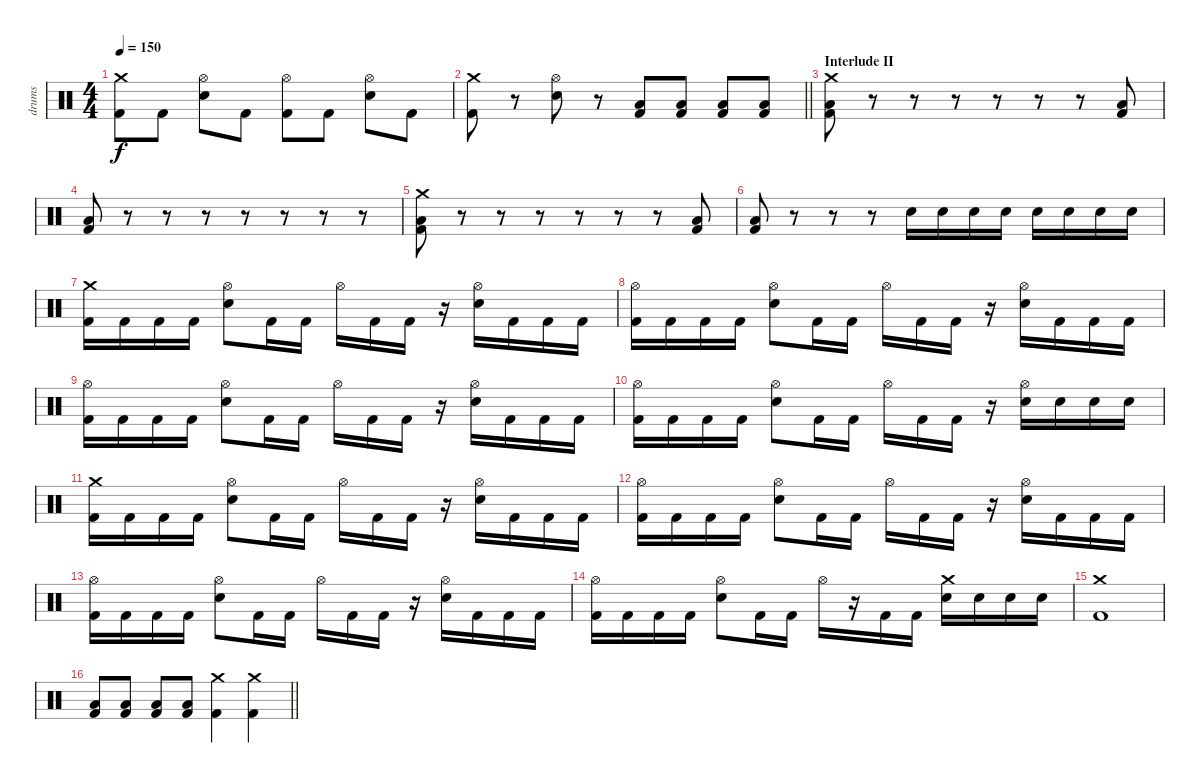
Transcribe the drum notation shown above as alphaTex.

\track ("drums" "drums") {instrument percussion}
\staff {score}
\articulation defaults
\ts (4 4)
\tempo 150
\clef neutral
\ks c
("Crash medium (hit)" "Kick (hit) 2").8{dy f} "Kick (hit) 2".8 ("Hi-Hat (open)" "Electric Snare (hit)").8 "Kick (hit) 2".8 ("Hi-Hat (open)" "Kick (hit) 2").8 "Kick (hit) 2".8 ("Hi-Hat (open)" "Electric Snare (hit)").8 "Kick (hit) 2".8 |
\barLineRight lightlight
("Crash medium (hit)" "Kick (hit) 2").8 r.8 ("Hi-Hat (open)" "Electric Snare (hit)").8 r.8 ("Low Tom (hit)" "Kick (hit) 2").8 ("Low Tom (hit)" "Kick (hit) 2").8 ("Low Tom (hit)" "Kick (hit) 2").8 ("Low Tom (hit)" "Kick (hit) 2").8 |
\section ("" "Interlude II")
("Crash medium (hit)" "Low Tom (hit)" "Kick (hit) 2").8 r.8 r.8 r.8 r.8 r.8 r.8 ("Low Tom (hit)" "Kick (hit) 2").8 |
("Low Tom (hit)" "Kick (hit) 2").8 r.8 r.8 r.8 r.8 r.8 r.8 r.8 |
("Crash medium (hit)" "Low Tom (hit)" "Kick (hit) 2").8 r.8 r.8 r.8 r.8 r.8 r.8 ("Low Tom (hit)" "Kick (hit) 2").8 |
("Low Tom (hit)" "Kick (hit) 2").8 r.8 r.8 r.8 "Electric Snare (hit)".16 "Electric Snare (hit)".16 "Electric Snare (hit)".16 "Electric Snare (hit)".16 "Electric Snare (hit)".16 "Electric Snare (hit)".16 "Electric Snare (hit)".16 "Electric Snare (hit)".16 |
("Crash medium (hit)" "Kick (hit) 2").16 "Kick (hit) 2".16 "Kick (hit) 2".16 "Kick (hit) 2".16 ("Hi-Hat (open)" "Electric Snare (hit)").8 "Kick (hit) 2".16 "Kick (hit) 2".16 "Hi-Hat (open)".16 "Kick (hit) 2".16 "Kick (hit) 2".16 r.16 ("Hi-Hat (open)" "Electric Snare (hit)").16 "Kick (hit) 2".16 "Kick (hit) 2".16 "Kick (hit) 2".16 |
("Hi-Hat (open)" "Kick (hit) 2").16 "Kick (hit) 2".16 "Kick (hit) 2".16 "Kick (hit) 2".16 ("Hi-Hat (open)" "Electric Snare (hit)").8 "Kick (hit) 2".16 "Kick (hit) 2".16 "Hi-Hat (open)".16 "Kick (hit) 2".16 "Kick (hit) 2".16 r.16 ("Hi-Hat (open)" "Electric Snare (hit)").16 "Kick (hit) 2".16 "Kick (hit) 2".16 "Kick (hit) 2".16 |
("Hi-Hat (open)" "Kick (hit) 2").16 "Kick (hit) 2".16 "Kick (hit) 2".16 "Kick (hit) 2".16 ("Hi-Hat (open)" "Electric Snare (hit)").8 "Kick (hit) 2".16 "Kick (hit) 2".16 "Hi-Hat (open)".16 "Kick (hit) 2".16 "Kick (hit) 2".16 r.16 ("Hi-Hat (open)" "Electric Snare (hit)").16 "Kick (hit) 2".16 "Kick (hit) 2".16 "Kick (hit) 2".16 |
("Hi-Hat (open)" "Kick (hit) 2").16 "Kick (hit) 2".16 "Kick (hit) 2".16 "Kick (hit) 2".16 ("Hi-Hat (open)" "Electric Snare (hit)").8 "Kick (hit) 2".16 "Kick (hit) 2".16 "Hi-Hat (open)".16 "Kick (hit) 2".16 "Kick (hit) 2".16 r.16 ("Hi-Hat (open)" "Electric Snare (hit)").16 "Electric Snare (hit)".16 "Electric Snare (hit)".16 "Electric Snare (hit)".16 |
("Crash medium (hit)" "Kick (hit) 2").16 "Kick (hit) 2".16 "Kick (hit) 2".16 "Kick (hit) 2".16 ("Hi-Hat (open)" "Electric Snare (hit)").8 "Kick (hit) 2".16 "Kick (hit) 2".16 "Hi-Hat (open)".16 "Kick (hit) 2".16 "Kick (hit) 2".16 r.16 ("Hi-Hat (open)" "Electric Snare (hit)").16 "Kick (hit) 2".16 "Kick (hit) 2".16 "Kick (hit) 2".16 |
("Hi-Hat (open)" "Kick (hit) 2").16 "Kick (hit) 2".16 "Kick (hit) 2".16 "Kick (hit) 2".16 ("Hi-Hat (open)" "Electric Snare (hit)").8 "Kick (hit) 2".16 "Kick (hit) 2".16 "Hi-Hat (open)".16 "Kick (hit) 2".16 "Kick (hit) 2".16 r.16 ("Hi-Hat (open)" "Electric Snare (hit)").16 "Kick (hit) 2".16 "Kick (hit) 2".16 "Kick (hit) 2".16 |
("Hi-Hat (open)" "Kick (hit) 2").16 "Kick (hit) 2".16 "Kick (hit) 2".16 "Kick (hit) 2".16 ("Hi-Hat (open)" "Electric Snare (hit)").8 "Kick (hit) 2".16 "Kick (hit) 2".16 "Hi-Hat (open)".16 "Kick (hit) 2".16 "Kick (hit) 2".16 r.16 ("Hi-Hat (open)" "Electric Snare (hit)").16 "Kick (hit) 2".16 "Kick (hit) 2".16 "Kick (hit) 2".16 |
("Hi-Hat (open)" "Kick (hit) 2").16 "Kick (hit) 2".16 "Kick (hit) 2".16 "Kick (hit) 2".16 ("Hi-Hat (open)" "Electric Snare (hit)").8 "Kick (hit) 2".16 "Kick (hit) 2".16 "Hi-Hat (open)".16 r.16 "Kick (hit) 2".16 "Kick (hit) 2".16 ("Crash medium (hit)" "Electric Snare (hit)").16 "Electric Snare (hit)".16 "Electric Snare (hit)".16 "Electric Snare (hit)".16 |
("Crash medium (hit)" "Kick (hit) 2").1 |
\barLineRight lightlight
("Low Tom (hit)" "Kick (hit) 2").8 ("Low Tom (hit)" "Kick (hit) 2").8 ("Low Tom (hit)" "Kick (hit) 2").8 ("Low Tom (hit)" "Kick (hit) 2").8 ("Crash medium (hit)" "Kick (hit) 2").4 ("Crash medium (hit)" "Kick (hit) 2").4
